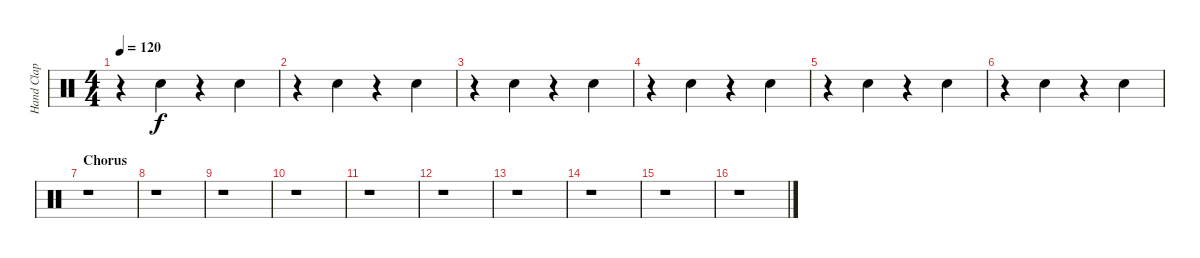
\track ("Hand Clap" "Hand Clap") {instrument percussion}
\staff {score}
\articulation defaults
\ts (4 4)
\tempo 120
\clef neutral
\ks c
r.4{dy f} "Hand Clap (hit)".4 r.4 "Hand Clap (hit)".4 |
r.4 "Hand Clap (hit)".4 r.4 "Hand Clap (hit)".4 |
r.4 "Hand Clap (hit)".4 r.4 "Hand Clap (hit)".4 |
r.4 "Hand Clap (hit)".4 r.4 "Hand Clap (hit)".4 |
r.4 "Hand Clap (hit)".4 r.4 "Hand Clap (hit)".4 |
r.4 "Hand Clap (hit)".4 r.4 "Hand Clap (hit)".4 |
\section ("" "Chorus")
r.1 |
r.1 |
r.1 |
r.1 |
r.1 |
r.1 |
r.1 |
r.1 |
r.1 |
r.1
